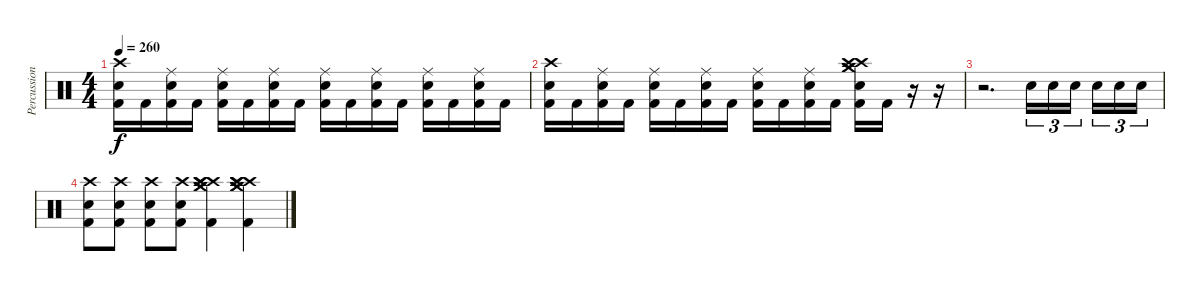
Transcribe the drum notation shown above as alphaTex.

\track ("Percussion" "Percussion") {instrument percussion}
\staff {score}
\articulation defaults
\ts (4 4)
\tempo 260
\clef neutral
\ks c
("Crash high (hit)" "Electric Snare (hit)" "Kick (hit) 2").16{dy f} "Kick (hit) 2".16 ("Ride (middle)" "Electric Snare (hit)" "Kick (hit) 2").16 "Kick (hit) 2".16 ("Ride (middle)" "Electric Snare (hit)" "Kick (hit) 2").16 "Kick (hit) 2".16 ("Ride (middle)" "Electric Snare (hit)" "Kick (hit) 2").16 "Kick (hit) 2".16 ("Ride (middle)" "Electric Snare (hit)" "Kick (hit) 2").16 "Kick (hit) 2".16 ("Ride (middle)" "Electric Snare (hit)" "Kick (hit) 2").16 "Kick (hit) 2".16 ("Ride (middle)" "Electric Snare (hit)" "Kick (hit) 2").16 "Kick (hit) 2".16 ("Ride (middle)" "Electric Snare (hit)" "Kick (hit) 2").16 "Kick (hit) 2".16 |
("Crash high (hit)" "Electric Snare (hit)" "Kick (hit) 2").16 "Kick (hit) 2".16 ("Ride (middle)" "Electric Snare (hit)" "Kick (hit) 2").16 "Kick (hit) 2".16 ("Ride (middle)" "Electric Snare (hit)" "Kick (hit) 2").16 "Kick (hit) 2".16 ("Ride (middle)" "Electric Snare (hit)" "Kick (hit) 2").16 "Kick (hit) 2".16 ("Ride (middle)" "Electric Snare (hit)" "Kick (hit) 2").16 "Kick (hit) 2".16 ("Ride (middle)" "Electric Snare (hit)" "Kick (hit) 2").16 "Kick (hit) 2".16 ("Crash medium (hit)" "Crash medium (hit)" "Crash high (hit)" "Crash high (hit)" "Electric Snare (hit)" "Kick (hit) 2").16 "Kick (hit) 2".16 r.16 r.16 |
r.2{d} "Electric Snare (hit)".16{tu (3 2)} "Electric Snare (hit)".16{tu (3 2)} "Electric Snare (hit)".16{tu (3 2)} "Electric Snare (hit)".16{tu (3 2)} "Electric Snare (hit)".16{tu (3 2)} "Electric Snare (hit)".16{tu (3 2)} |
("Crash high (hit)" "Electric Snare (hit)" "Kick (hit) 2").8 ("Crash high (hit)" "Electric Snare (hit)" "Kick (hit) 2").8 ("Crash high (hit)" "Electric Snare (hit)" "Kick (hit) 2").8 ("Crash high (hit)" "Electric Snare (hit)" "Kick (hit) 2").8 ("Crash high (hit)" "Crash high (hit)" "Crash high (hit)" "Crash medium (hit)" "Crash medium (hit)" "Kick (hit) 2").4 ("Crash high (hit)" "Crash high (hit)" "Crash high (hit)" "Crash medium (hit)" "Crash medium (hit)" "Kick (hit) 2").4
